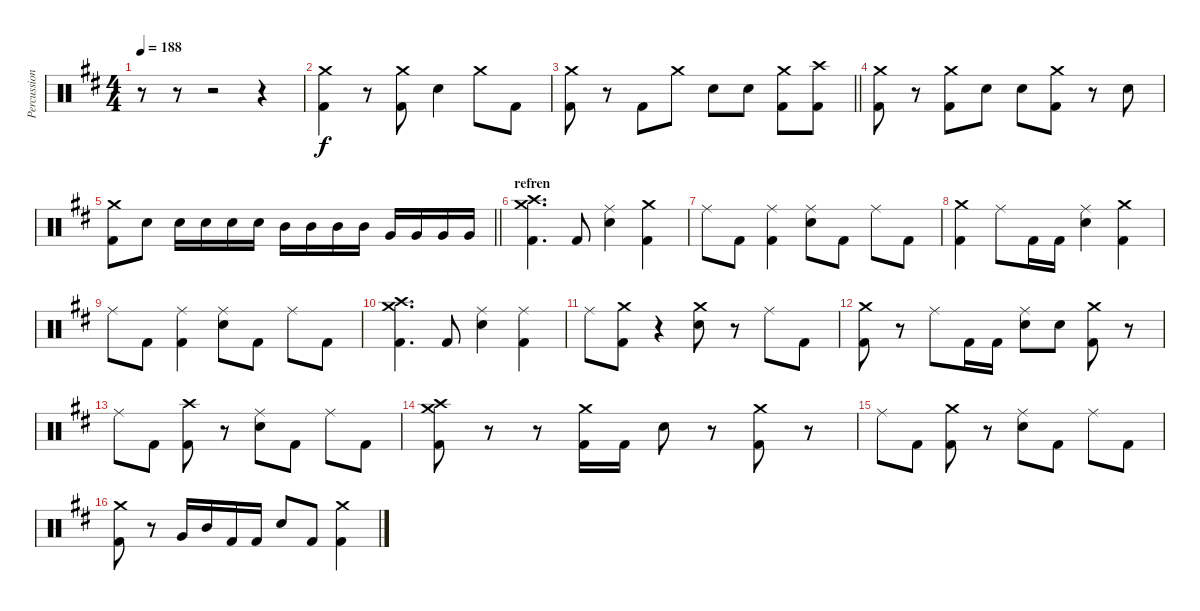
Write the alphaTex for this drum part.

\track ("Percussion" "Percussion") {instrument percussion}
\staff {score}
\articulation defaults
\ts (4 4)
\tempo 188
\clef neutral
\ks bminor
r.8{dy f volume 0} r.8 r.2 r.4 |
("Kick (hit) 2" "Crash medium (hit)").4{volume 16} r.8 ("Crash medium (hit)" "Kick (hit) 2").8 "Electric Snare (hit)".4 "Crash medium (hit)".8 "Kick (hit) 2".8 |
\barLineRight lightlight
("Kick (hit) 2" "Crash medium (hit)").8 r.8 "Kick (hit) 2".8 "Crash medium (hit)".8 "Electric Snare (hit)".8 "Electric Snare (hit)".8 ("Crash medium (hit)" "Kick (hit) 2").8 ("Crash high (hit)" "Kick (hit) 2").8 |
("Crash medium (hit)" "Kick (hit) 2").8 r.8 ("Crash medium (hit)" "Kick (hit) 2").8 "Electric Snare (hit)".8 "Electric Snare (hit)".8 ("Kick (hit) 2" "Crash medium (hit)").8 r.8 "Electric Snare (hit)".8 |
\barLineRight lightlight
("Crash medium (hit)" "Kick (hit) 2").8 "Electric Snare (hit)".8 "Electric Snare (hit)".16 "Electric Snare (hit)".16 "Electric Snare (hit)".16 "Electric Snare (hit)".16 "Mid Tom (hit)".16 "Mid Tom (hit)".16 "Mid Tom (hit)".16 "Mid Tom (hit)".16 "Very Low Tom (hit)".16 "Very Low Tom (hit)".16 "Very Low Tom (hit)".16 "Very Low Tom (hit)".16 |
\section ("" "refren")
("Crash medium (hit)" "Kick (hit) 2" "Crash high (hit)").4{d} "Kick (hit) 2".8 ("Ride (middle)" "Electric Snare (hit)").4 ("Crash medium (hit)" "Kick (hit) 2").4 |
"Ride (middle)".8 "Kick (hit) 2".8 ("Ride (middle)" "Kick (hit) 2").4 ("Ride (middle)" "Electric Snare (hit)").8 "Kick (hit) 2".8 "Ride (middle)".8 "Kick (hit) 2".8 |
("Crash medium (hit)" "Kick (hit) 2").4 "Ride (middle)".8 "Kick (hit) 2".16 "Kick (hit) 2".16 ("Ride (middle)" "Electric Snare (hit)").4 ("Crash medium (hit)" "Kick (hit) 2").4 |
"Ride (middle)".8 "Kick (hit) 2".8 ("Ride (middle)" "Kick (hit) 2").4 ("Ride (middle)" "Electric Snare (hit)").8 "Kick (hit) 2".8 "Ride (middle)".8 "Kick (hit) 2".8 |
("Crash medium (hit)" "Kick (hit) 2" "Crash high (hit)").4{d} "Kick (hit) 2".8 ("Ride (middle)" "Electric Snare (hit)").4 ("Ride (middle)" "Kick (hit) 2").4 |
"Ride (middle)".8 ("Kick (hit) 2" "Crash medium (hit)").8 r.4 ("Crash medium (hit)" "Electric Snare (hit)").8 r.8 "Ride (middle)".8 "Kick (hit) 2".8 |
("Crash medium (hit)" "Kick (hit) 2").8 r.8 "Ride (middle)".8 "Kick (hit) 2".16 "Kick (hit) 2".16 ("Ride (middle)" "Electric Snare (hit)").8 "Electric Snare (hit)".8 ("Crash medium (hit)" "Kick (hit) 2").8 r.8 |
"Ride (middle)".8 "Kick (hit) 2".8 ("Crash high (hit)" "Kick (hit) 2").8 r.8 ("Ride (middle)" "Electric Snare (hit)").8 "Kick (hit) 2".8 "Ride (middle)".8 "Kick (hit) 2".8 |
("Crash medium (hit)" "Kick (hit) 2" "Crash high (hit)").8 r.8 r.8 ("Kick (hit) 2" "Crash medium (hit)").16 "Kick (hit) 2".16 "Electric Snare (hit)".8 r.8 ("Crash medium (hit)" "Kick (hit) 2").8 r.8 |
"Ride (middle)".8 "Kick (hit) 2".8 ("Crash medium (hit)" "Kick (hit) 2").8 r.8 ("Ride (middle)" "Electric Snare (hit)").8 "Kick (hit) 2".8 "Ride (middle)".8 "Kick (hit) 2".8 |
("Crash medium (hit)" "Kick (hit) 2").8 r.8 "Very Low Tom (hit)".16 "Mid Tom (hit)".16 "Kick (hit) 2".16 "Kick (hit) 2".16 "Electric Snare (hit)".8 "Kick (hit) 2".8 ("Kick (hit) 2" "Crash medium (hit)").4
